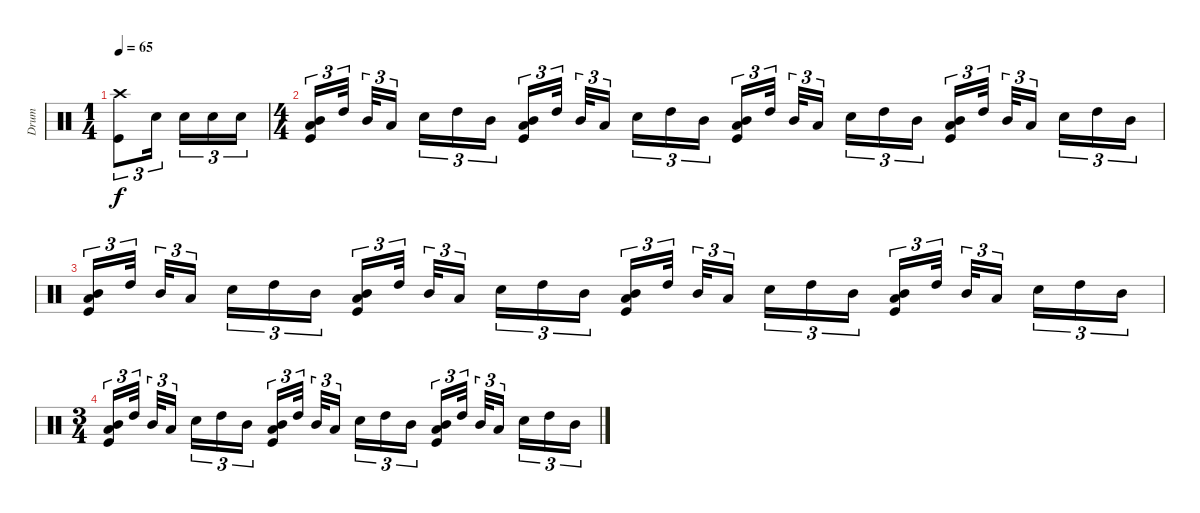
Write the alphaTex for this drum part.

\track ("Drum" "Drum") {instrument percussion}
\staff {score}
\articulation defaults
\ts (1 4)
\tempo 65
\clef neutral
\ks c
("Kick (hit)" "Crash high (hit)").8{tu (3 2) dy f} "Snare (hit) 2".16{tu (3 2)} "Snare (hit) 2".16{tu (3 2)} "Snare (hit) 2".16{tu (3 2)} "Snare (hit) 2".16{tu (3 2)} |
\ts (4 4)
("Kick (hit)" "Mid Tom (hit)" "Low Tom (hit)").16{tu (3 2)} "High Tom (hit)".32{tu (3 2)} "Mid Tom (hit)".32{tu (3 2)} "Low Tom (hit)".16{tu (3 2)} "Snare (hit) 2".16{tu (3 2)} "High Tom (hit)".16{tu (3 2)} "Mid Tom (hit)".16{tu (3 2)} ("Kick (hit)" "Mid Tom (hit)" "Low Tom (hit)").16{tu (3 2)} "High Tom (hit)".32{tu (3 2)} "Mid Tom (hit)".32{tu (3 2)} "Low Tom (hit)".16{tu (3 2)} "Snare (hit) 2".16{tu (3 2)} "High Tom (hit)".16{tu (3 2)} "Mid Tom (hit)".16{tu (3 2)} ("Kick (hit)" "Mid Tom (hit)" "Low Tom (hit)").16{tu (3 2)} "High Tom (hit)".32{tu (3 2)} "Mid Tom (hit)".32{tu (3 2)} "Low Tom (hit)".16{tu (3 2)} "Snare (hit) 2".16{tu (3 2)} "High Tom (hit)".16{tu (3 2)} "Mid Tom (hit)".16{tu (3 2)} ("Kick (hit)" "Mid Tom (hit)" "Low Tom (hit)").16{tu (3 2)} "High Tom (hit)".32{tu (3 2)} "Mid Tom (hit)".32{tu (3 2)} "Low Tom (hit)".16{tu (3 2)} "Snare (hit) 2".16{tu (3 2)} "High Tom (hit)".16{tu (3 2)} "Mid Tom (hit)".16{tu (3 2)} |
("Kick (hit)" "Mid Tom (hit)" "Low Tom (hit)").16{tu (3 2)} "High Tom (hit)".32{tu (3 2)} "Mid Tom (hit)".32{tu (3 2)} "Low Tom (hit)".16{tu (3 2)} "Snare (hit) 2".16{tu (3 2)} "High Tom (hit)".16{tu (3 2)} "Mid Tom (hit)".16{tu (3 2)} ("Kick (hit)" "Mid Tom (hit)" "Low Tom (hit)").16{tu (3 2)} "High Tom (hit)".32{tu (3 2)} "Mid Tom (hit)".32{tu (3 2)} "Low Tom (hit)".16{tu (3 2)} "Snare (hit) 2".16{tu (3 2)} "High Tom (hit)".16{tu (3 2)} "Mid Tom (hit)".16{tu (3 2)} ("Kick (hit)" "Mid Tom (hit)" "Low Tom (hit)").16{tu (3 2)} "High Tom (hit)".32{tu (3 2)} "Mid Tom (hit)".32{tu (3 2)} "Low Tom (hit)".16{tu (3 2)} "Snare (hit) 2".16{tu (3 2)} "High Tom (hit)".16{tu (3 2)} "Mid Tom (hit)".16{tu (3 2)} ("Kick (hit)" "Mid Tom (hit)" "Low Tom (hit)").16{tu (3 2)} "High Tom (hit)".32{tu (3 2)} "Mid Tom (hit)".32{tu (3 2)} "Low Tom (hit)".16{tu (3 2)} "Snare (hit) 2".16{tu (3 2)} "High Tom (hit)".16{tu (3 2)} "Mid Tom (hit)".16{tu (3 2)} |
\ts (3 4)
("Kick (hit)" "Mid Tom (hit)" "Low Tom (hit)").16{tu (3 2)} "High Tom (hit)".32{tu (3 2)} "Mid Tom (hit)".32{tu (3 2)} "Low Tom (hit)".16{tu (3 2)} "Snare (hit) 2".16{tu (3 2)} "High Tom (hit)".16{tu (3 2)} "Mid Tom (hit)".16{tu (3 2)} ("Kick (hit)" "Mid Tom (hit)" "Low Tom (hit)").16{tu (3 2)} "High Tom (hit)".32{tu (3 2)} "Mid Tom (hit)".32{tu (3 2)} "Low Tom (hit)".16{tu (3 2)} "Snare (hit) 2".16{tu (3 2)} "High Tom (hit)".16{tu (3 2)} "Mid Tom (hit)".16{tu (3 2)} ("Kick (hit)" "Mid Tom (hit)" "Low Tom (hit)").16{tu (3 2)} "High Tom (hit)".32{tu (3 2)} "Mid Tom (hit)".32{tu (3 2)} "Low Tom (hit)".16{tu (3 2)} "Snare (hit) 2".16{tu (3 2)} "High Tom (hit)".16{tu (3 2)} "Mid Tom (hit)".16{tu (3 2)}
